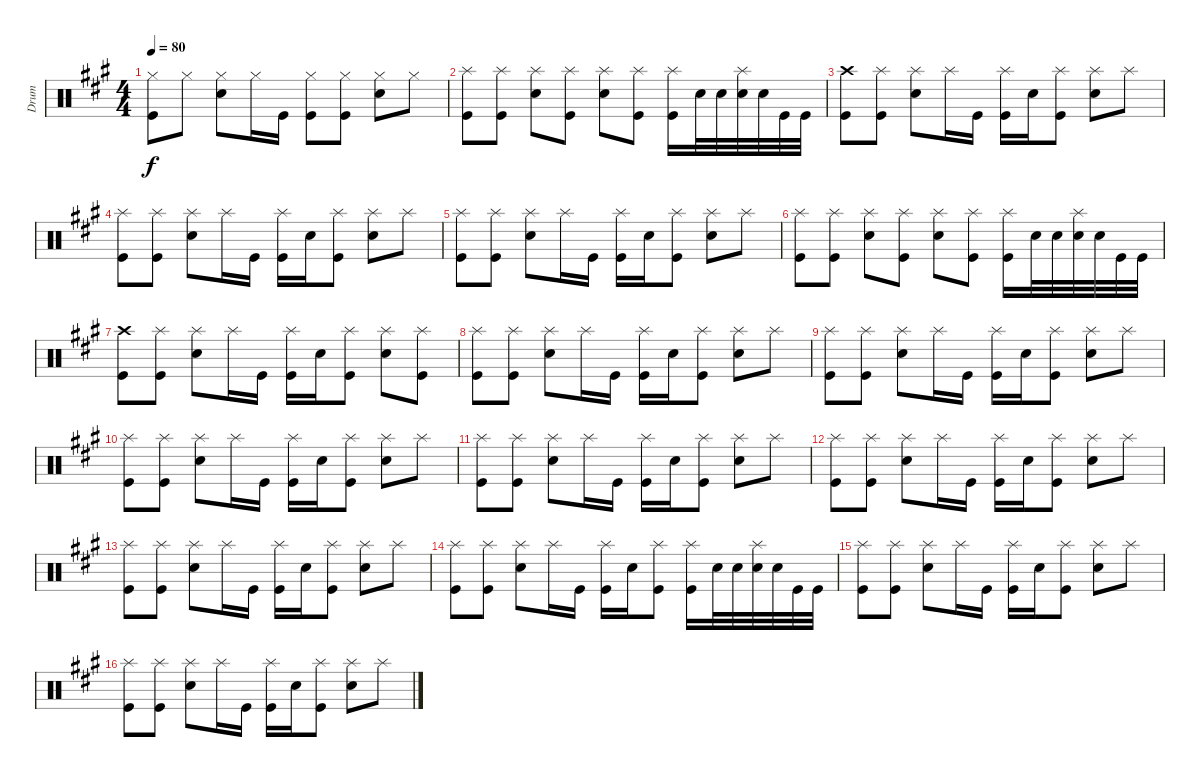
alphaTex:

\track ("Drum" "Drum") {instrument percussion}
\staff {score}
\articulation defaults
\ts (4 4)
\tempo 80
\clef neutral
\ks a
("Hi-Hat (closed)" "Kick (hit)").8{dy f} "Hi-Hat (closed)".8 ("Hi-Hat (closed)" "Electric Snare (hit)").8 "Hi-Hat (closed)".16 "Kick (hit)".16 ("Hi-Hat (closed)" "Kick (hit)").8 ("Hi-Hat (closed)" "Kick (hit)").8 ("Hi-Hat (closed)" "Electric Snare (hit)").8 "Hi-Hat (closed)".8 |
("Splash (hit)" "Kick (hit)").8 ("Splash (hit)" "Kick (hit)").8 ("Splash (hit)" "Electric Snare (hit)").8 ("Splash (hit)" "Kick (hit)").8 ("Splash (hit)" "Electric Snare (hit)").8 ("Splash (hit)" "Kick (hit)").8 ("Splash (hit)" "Kick (hit)").16 "Electric Snare (hit)".32 "Electric Snare (hit)".32 ("Splash (hit)" "Electric Snare (hit)").32 "Electric Snare (hit)".32 "Kick (hit)".32 "Kick (hit)".32 |
("Crash high (hit)" "Kick (hit)").8 ("Splash (hit)" "Kick (hit)").8 ("Splash (hit)" "Electric Snare (hit)").8 "Splash (hit)".16 "Kick (hit)".16 ("Splash (hit)" "Kick (hit)").16 "Electric Snare (hit)".16 ("Splash (hit)" "Kick (hit)").8 ("Splash (hit)" "Electric Snare (hit)").8 "Splash (hit)".8 |
("Splash (hit)" "Kick (hit)").8 ("Splash (hit)" "Kick (hit)").8 ("Splash (hit)" "Electric Snare (hit)").8 "Splash (hit)".16 "Kick (hit)".16 ("Splash (hit)" "Kick (hit)").16 "Electric Snare (hit)".16 ("Splash (hit)" "Kick (hit)").8 ("Splash (hit)" "Electric Snare (hit)").8 "Splash (hit)".8 |
("Splash (hit)" "Kick (hit)").8 ("Splash (hit)" "Kick (hit)").8 ("Splash (hit)" "Electric Snare (hit)").8 "Splash (hit)".16 "Kick (hit)".16 ("Splash (hit)" "Kick (hit)").16 "Electric Snare (hit)".16 ("Splash (hit)" "Kick (hit)").8 ("Splash (hit)" "Electric Snare (hit)").8 "Splash (hit)".8 |
("Splash (hit)" "Kick (hit)").8 ("Splash (hit)" "Kick (hit)").8 ("Splash (hit)" "Electric Snare (hit)").8 ("Splash (hit)" "Kick (hit)").8 ("Splash (hit)" "Electric Snare (hit)").8 ("Splash (hit)" "Kick (hit)").8 ("Splash (hit)" "Kick (hit)").16 "Electric Snare (hit)".32 "Electric Snare (hit)".32 ("Splash (hit)" "Electric Snare (hit)").32 "Electric Snare (hit)".32 "Kick (hit)".32 "Kick (hit)".32 |
("Crash high (hit)" "Kick (hit)").8 ("Splash (hit)" "Kick (hit)").8 ("Splash (hit)" "Electric Snare (hit)").8 "Splash (hit)".16 "Kick (hit)".16 ("Splash (hit)" "Kick (hit)").16 "Electric Snare (hit)".16 ("Splash (hit)" "Kick (hit)").8 ("Splash (hit)" "Electric Snare (hit)").8 ("Splash (hit)" "Kick (hit)").8 |
("Splash (hit)" "Kick (hit)").8 ("Splash (hit)" "Kick (hit)").8 ("Splash (hit)" "Electric Snare (hit)").8 "Splash (hit)".16 "Kick (hit)".16 ("Splash (hit)" "Kick (hit)").16 "Electric Snare (hit)".16 ("Splash (hit)" "Kick (hit)").8 ("Splash (hit)" "Electric Snare (hit)").8 "Splash (hit)".8 |
("Splash (hit)" "Kick (hit)").8 ("Splash (hit)" "Kick (hit)").8 ("Splash (hit)" "Electric Snare (hit)").8 "Splash (hit)".16 "Kick (hit)".16 ("Splash (hit)" "Kick (hit)").16 "Electric Snare (hit)".16 ("Splash (hit)" "Kick (hit)").8 ("Splash (hit)" "Electric Snare (hit)").8 "Splash (hit)".8 |
("Splash (hit)" "Kick (hit)").8 ("Splash (hit)" "Kick (hit)").8 ("Splash (hit)" "Electric Snare (hit)").8 "Splash (hit)".16 "Kick (hit)".16 ("Splash (hit)" "Kick (hit)").16 "Electric Snare (hit)".16 ("Splash (hit)" "Kick (hit)").8 ("Splash (hit)" "Electric Snare (hit)").8 "Splash (hit)".8 |
("Splash (hit)" "Kick (hit)").8 ("Splash (hit)" "Kick (hit)").8 ("Splash (hit)" "Electric Snare (hit)").8 "Splash (hit)".16 "Kick (hit)".16 ("Splash (hit)" "Kick (hit)").16 "Electric Snare (hit)".16 ("Splash (hit)" "Kick (hit)").8 ("Splash (hit)" "Electric Snare (hit)").8 "Splash (hit)".8 |
("Splash (hit)" "Kick (hit)").8 ("Splash (hit)" "Kick (hit)").8 ("Splash (hit)" "Electric Snare (hit)").8 "Splash (hit)".16 "Kick (hit)".16 ("Splash (hit)" "Kick (hit)").16 "Electric Snare (hit)".16 ("Splash (hit)" "Kick (hit)").8 ("Splash (hit)" "Electric Snare (hit)").8 "Splash (hit)".8 |
("Splash (hit)" "Kick (hit)").8 ("Splash (hit)" "Kick (hit)").8 ("Splash (hit)" "Electric Snare (hit)").8 "Splash (hit)".16 "Kick (hit)".16 ("Splash (hit)" "Kick (hit)").16 "Electric Snare (hit)".16 ("Splash (hit)" "Kick (hit)").8 ("Splash (hit)" "Electric Snare (hit)").8 "Splash (hit)".8 |
("Splash (hit)" "Kick (hit)").8 ("Splash (hit)" "Kick (hit)").8 ("Splash (hit)" "Electric Snare (hit)").8 "Splash (hit)".16 "Kick (hit)".16 ("Splash (hit)" "Kick (hit)").16 "Electric Snare (hit)".16 ("Splash (hit)" "Kick (hit)").8 ("Splash (hit)" "Kick (hit)").16 "Electric Snare (hit)".32 "Electric Snare (hit)".32 ("Splash (hit)" "Snare (hit) 2").32 "Snare (hit) 2".32 "Kick (hit)".32 "Kick (hit)".32 |
("Splash (hit)" "Kick (hit)").8 ("Splash (hit)" "Kick (hit)").8 ("Splash (hit)" "Electric Snare (hit)").8 "Splash (hit)".16 "Kick (hit)".16 ("Splash (hit)" "Kick (hit)").16 "Electric Snare (hit)".16 ("Splash (hit)" "Kick (hit)").8 ("Splash (hit)" "Electric Snare (hit)").8 "Splash (hit)".8 |
("Splash (hit)" "Kick (hit)").8 ("Splash (hit)" "Kick (hit)").8 ("Splash (hit)" "Electric Snare (hit)").8 "Splash (hit)".16 "Kick (hit)".16 ("Splash (hit)" "Kick (hit)").16 "Electric Snare (hit)".16 ("Splash (hit)" "Kick (hit)").8 ("Splash (hit)" "Electric Snare (hit)").8 "Splash (hit)".8
